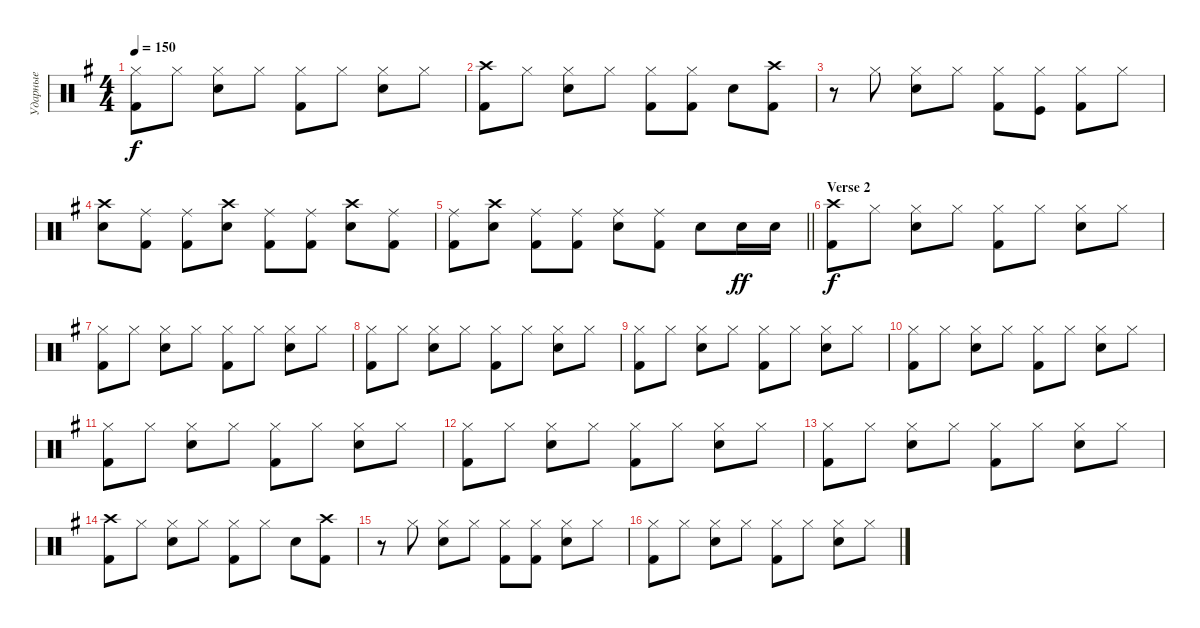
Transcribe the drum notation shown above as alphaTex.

\track ("Ударные" "Ударные") {instrument percussion}
\staff {score}
\articulation defaults
\ts (4 4)
\tempo 150
\clef neutral
\ks eminor
("Hi-Hat (closed)" "Kick (hit) 2").8{dy f} "Hi-Hat (closed)".8 ("Hi-Hat (closed)" "Snare (hit) 2").8 "Hi-Hat (closed)".8 ("Hi-Hat (closed)" "Kick (hit) 2").8 "Hi-Hat (closed)".8 ("Hi-Hat (closed)" "Snare (hit) 2").8 "Hi-Hat (closed)".8 |
("Kick (hit) 2" "Crash high (hit)").8 "Hi-Hat (closed)".8 ("Snare (hit) 2" "Hi-Hat (closed)").8 "Hi-Hat (closed)".8 ("Kick (hit) 2" "Hi-Hat (closed)").8 ("Hi-Hat (closed)" "Kick (hit) 2").8 "Snare (hit) 2".8 ("Kick (hit) 2" "Crash high (hit)").8 |
r.8 "Hi-Hat (closed)".8 ("Snare (hit) 2" "Hi-Hat (closed)").8 "Hi-Hat (closed)".8 ("Kick (hit) 2" "Hi-Hat (closed)").8 ("Hi-Hat (closed)" "Kick (hit)").8 ("Kick (hit) 2" "Hi-Hat (closed)").8 "Hi-Hat (closed)".8 |
("Snare (hit) 2" "Crash high (hit)").8 ("Kick (hit) 2" "Ride (middle)").8 ("Kick (hit) 2" "Ride (middle)").8 ("Snare (hit) 2" "Crash high (hit)").8 ("Kick (hit) 2" "Ride (middle)").8 ("Kick (hit) 2" "Ride (middle)").8 ("Snare (hit) 2" "Crash high (hit)").8 ("Kick (hit) 2" "Ride (middle)").8 |
\barLineRight lightlight
("Kick (hit) 2" "Ride (middle)").8 ("Snare (hit) 2" "Crash high (hit)").8 ("Kick (hit) 2" "Ride (middle)").8 ("Kick (hit) 2" "Ride (middle)").8 ("Snare (hit) 2" "Ride (middle)").8 ("Kick (hit) 2" "Ride (middle)").8 "Snare (hit) 2".8 "Snare (hit) 2".16{dy ff} "Snare (hit) 2".16 |
\section ("" "Verse 2")
("Crash high (hit)" "Kick (hit) 2").8{dy f} "Hi-Hat (closed)".8 ("Hi-Hat (closed)" "Snare (hit) 2").8 "Hi-Hat (closed)".8 ("Hi-Hat (closed)" "Kick (hit) 2").8 "Hi-Hat (closed)".8 ("Hi-Hat (closed)" "Snare (hit) 2").8 "Hi-Hat (closed)".8 |
("Hi-Hat (closed)" "Kick (hit) 2").8 "Hi-Hat (closed)".8 ("Hi-Hat (closed)" "Snare (hit) 2").8 "Hi-Hat (closed)".8 ("Hi-Hat (closed)" "Kick (hit) 2").8 "Hi-Hat (closed)".8 ("Hi-Hat (closed)" "Snare (hit) 2").8 "Hi-Hat (closed)".8 |
("Hi-Hat (closed)" "Kick (hit) 2").8 "Hi-Hat (closed)".8 ("Hi-Hat (closed)" "Snare (hit) 2").8 "Hi-Hat (closed)".8 ("Hi-Hat (closed)" "Kick (hit) 2").8 "Hi-Hat (closed)".8 ("Hi-Hat (closed)" "Snare (hit) 2").8 "Hi-Hat (closed)".8 |
("Hi-Hat (closed)" "Kick (hit) 2").8 "Hi-Hat (closed)".8 ("Hi-Hat (closed)" "Snare (hit) 2").8 "Hi-Hat (closed)".8 ("Hi-Hat (closed)" "Kick (hit) 2").8 "Hi-Hat (closed)".8 ("Hi-Hat (closed)" "Snare (hit) 2").8 "Hi-Hat (closed)".8 |
("Hi-Hat (closed)" "Kick (hit) 2").8 "Hi-Hat (closed)".8 ("Hi-Hat (closed)" "Snare (hit) 2").8 "Hi-Hat (closed)".8 ("Hi-Hat (closed)" "Kick (hit) 2").8 "Hi-Hat (closed)".8 ("Hi-Hat (closed)" "Snare (hit) 2").8 "Hi-Hat (closed)".8 |
("Hi-Hat (closed)" "Kick (hit) 2").8 "Hi-Hat (closed)".8 ("Hi-Hat (closed)" "Snare (hit) 2").8 "Hi-Hat (closed)".8 ("Hi-Hat (closed)" "Kick (hit) 2").8 "Hi-Hat (closed)".8 ("Hi-Hat (closed)" "Snare (hit) 2").8 "Hi-Hat (closed)".8 |
("Hi-Hat (closed)" "Kick (hit) 2").8 "Hi-Hat (closed)".8 ("Hi-Hat (closed)" "Snare (hit) 2").8 "Hi-Hat (closed)".8 ("Hi-Hat (closed)" "Kick (hit) 2").8 "Hi-Hat (closed)".8 ("Hi-Hat (closed)" "Snare (hit) 2").8 "Hi-Hat (closed)".8 |
("Hi-Hat (closed)" "Kick (hit) 2").8 "Hi-Hat (closed)".8 ("Hi-Hat (closed)" "Snare (hit) 2").8 "Hi-Hat (closed)".8 ("Hi-Hat (closed)" "Kick (hit) 2").8 "Hi-Hat (closed)".8 ("Hi-Hat (closed)" "Snare (hit) 2").8 "Hi-Hat (closed)".8 |
("Kick (hit) 2" "Crash high (hit)").8 "Hi-Hat (closed)".8 ("Snare (hit) 2" "Hi-Hat (closed)").8 "Hi-Hat (closed)".8 ("Kick (hit) 2" "Hi-Hat (closed)").8 "Hi-Hat (closed)".8 "Snare (hit) 2".8 ("Kick (hit) 2" "Crash high (hit)").8 |
r.8 "Hi-Hat (closed)".8 ("Snare (hit) 2" "Hi-Hat (closed)").8 "Hi-Hat (closed)".8 ("Kick (hit) 2" "Hi-Hat (closed)").8 ("Hi-Hat (closed)" "Kick (hit) 2").8 ("Snare (hit) 2" "Hi-Hat (closed)").8 "Hi-Hat (closed)".8 |
("Hi-Hat (closed)" "Kick (hit) 2").8 "Hi-Hat (closed)".8 ("Hi-Hat (closed)" "Snare (hit) 2").8 "Hi-Hat (closed)".8 ("Hi-Hat (closed)" "Kick (hit) 2").8 "Hi-Hat (closed)".8 ("Hi-Hat (closed)" "Snare (hit) 2").8 "Hi-Hat (closed)".8
